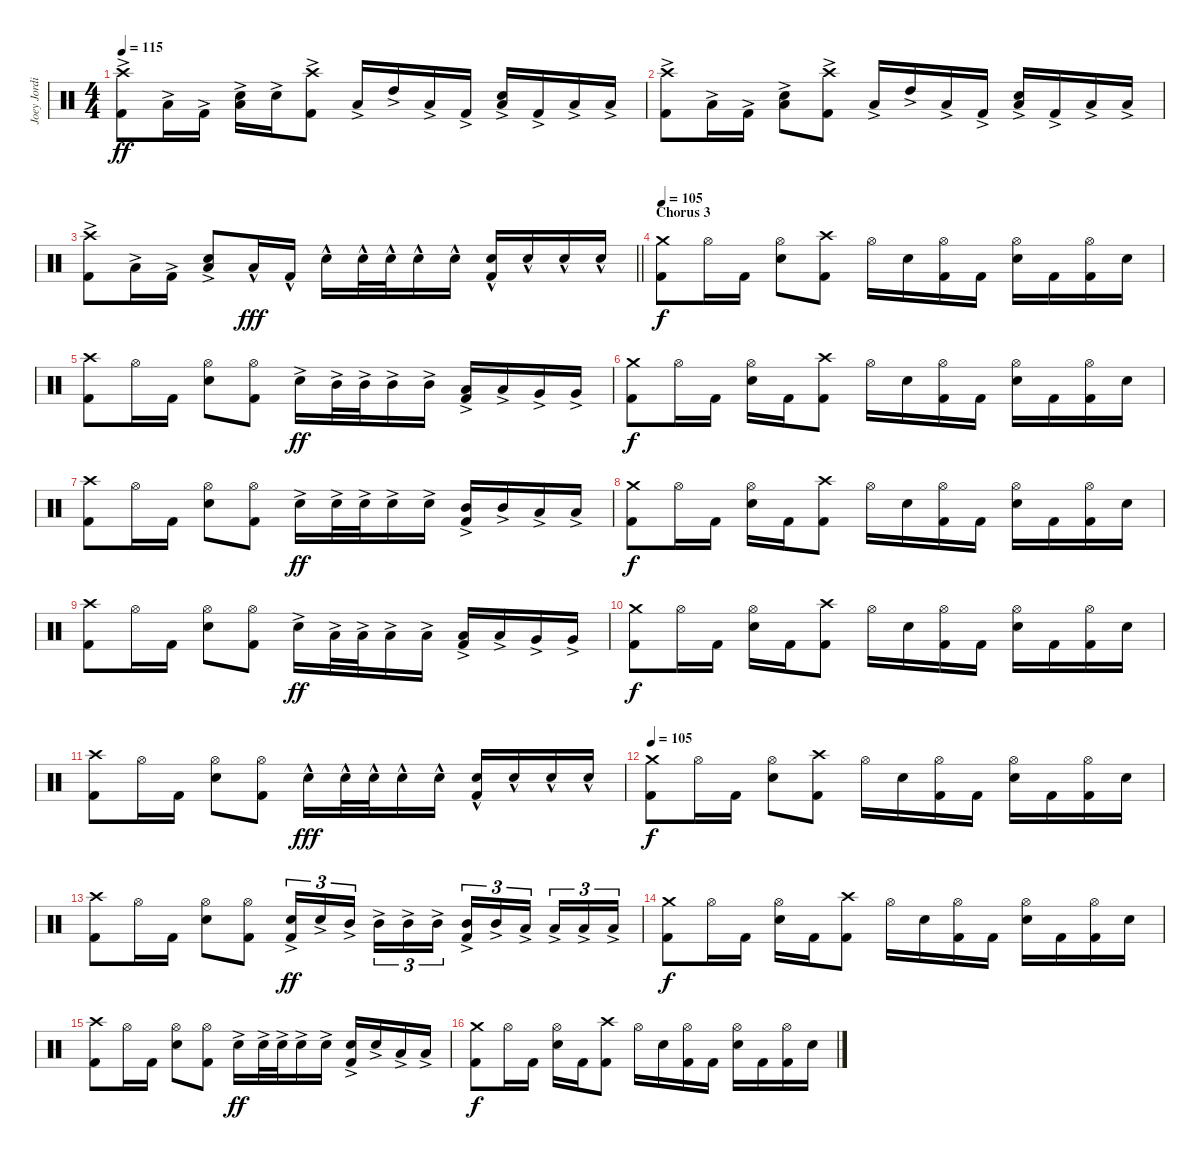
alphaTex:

\track ("Joey Jordinson (Drums)" "Joey Jordi") {instrument percussion}
\staff {score}
\articulation defaults
\ts (4 4)
\tempo 115
\clef neutral
\ks c
("Crash high (hit)" "Kick (hit) 2"{ac}).8{dy ff} "Low Tom (hit)"{ac}.16 "Kick (hit) 2"{ac}.16 ("Low Tom (hit)"{ac} "Electric Snare (hit)"{ac}).16 "Electric Snare (hit)"{ac}.16 ("Crash high (hit)" "Kick (hit) 2"{ac}).8 "Low Tom (hit)"{ac}.16 "High Tom (hit)"{ac}.16 "Low Tom (hit)"{ac}.16 "Kick (hit) 2"{ac}.16 ("Low Tom (hit)"{ac} "Electric Snare (hit)"{ac}).16 "Kick (hit) 2"{ac}.16 "Low Tom (hit)"{ac}.16 "Low Tom (hit)"{ac}.16 |
("Crash high (hit)" "Kick (hit) 2"{ac}).8 "Low Tom (hit)"{ac}.16 "Kick (hit) 2"{ac}.16 ("Low Tom (hit)"{ac} "Electric Snare (hit)"{ac}).8 ("Crash high (hit)" "Kick (hit) 2"{ac}).8 "Low Tom (hit)"{ac}.16 "High Tom (hit)"{ac}.16 "Low Tom (hit)"{ac}.16 "Kick (hit) 2"{ac}.16 ("Low Tom (hit)"{ac} "Electric Snare (hit)"{ac}).16 "Kick (hit) 2"{ac}.16 "Low Tom (hit)"{ac}.16 "Low Tom (hit)"{ac}.16 |
\barLineRight lightlight
("Crash high (hit)" "Kick (hit) 2"{ac}).8 "Low Tom (hit)"{ac}.16 "Kick (hit) 2"{ac}.16 ("Low Tom (hit)"{ac} "Electric Snare (hit)"{ac}).8 "Low Tom (hit)"{hac}.16{dy fff} "Kick (hit) 2"{hac}.16 "Electric Snare (hit)"{hac}.16 "Electric Snare (hit)"{hac}.32 "Electric Snare (hit)"{hac}.32 "Electric Snare (hit)"{hac}.16 "Electric Snare (hit)"{hac}.16 ("Electric Snare (hit)"{hac} "Kick (hit) 2"{hac}).16 "Electric Snare (hit)"{hac}.16 "Electric Snare (hit)"{hac}.16 "Electric Snare (hit)"{hac}.16 |
\section ("" "Chorus 3")
\tempo 105
("Crash medium (hit)" "Kick (hit) 2").8{dy f} "Hi-Hat (open)".16 "Kick (hit) 2".16 ("Hi-Hat (open)" "Electric Snare (hit)").8 ("Crash high (hit)" "Kick (hit) 2").8 "Hi-Hat (open)".16 "Electric Snare (hit)".16 ("Hi-Hat (open)" "Kick (hit) 2").16 "Kick (hit) 2".16 ("Hi-Hat (open)" "Electric Snare (hit)").16 "Kick (hit) 2".16 ("Hi-Hat (open)" "Kick (hit) 2").16 "Electric Snare (hit)".16 |
("Crash high (hit)" "Kick (hit) 2").8 "Hi-Hat (open)".16 "Kick (hit) 2".16 ("Hi-Hat (open)" "Electric Snare (hit)").8 ("Hi-Hat (open)" "Kick (hit) 2").8 "Electric Snare (hit)"{ac}.16{dy ff} "Mid Tom (hit)"{ac}.32 "Mid Tom (hit)"{ac}.32 "Mid Tom (hit)"{ac}.16 "Mid Tom (hit)"{ac}.16 ("Low Tom (hit)"{ac} "Kick (hit) 2").16 "Low Tom (hit)"{ac}.16 "Very Low Tom (hit)"{ac}.16 "Very Low Tom (hit)"{ac}.16 |
("Crash medium (hit)" "Kick (hit) 2").8{dy f} "Hi-Hat (open)".16 "Kick (hit) 2".16 ("Hi-Hat (open)" "Electric Snare (hit)").16 "Kick (hit) 2".16 ("Crash high (hit)" "Kick (hit) 2").8 "Hi-Hat (open)".16 "Electric Snare (hit)".16 ("Hi-Hat (open)" "Kick (hit) 2").16 "Kick (hit) 2".16 ("Hi-Hat (open)" "Electric Snare (hit)").16 "Kick (hit) 2".16 ("Hi-Hat (open)" "Kick (hit) 2").16 "Electric Snare (hit)".16 |
("Crash high (hit)" "Kick (hit) 2").8 "Hi-Hat (open)".16 "Kick (hit) 2".16 ("Hi-Hat (open)" "Electric Snare (hit)").8 ("Hi-Hat (open)" "Kick (hit) 2").8 "Electric Snare (hit)"{ac}.16{dy ff} "Electric Snare (hit)"{ac}.32 "Electric Snare (hit)"{ac}.32 "Electric Snare (hit)"{ac}.16 "Electric Snare (hit)"{ac}.16 ("Mid Tom (hit)"{ac} "Kick (hit) 2").16 "Mid Tom (hit)"{ac}.16 "Low Tom (hit)"{ac}.16 "Low Tom (hit)"{ac}.16 |
("Crash medium (hit)" "Kick (hit) 2").8{dy f} "Hi-Hat (open)".16 "Kick (hit) 2".16 ("Hi-Hat (open)" "Electric Snare (hit)").16 "Kick (hit) 2".16 ("Crash high (hit)" "Kick (hit) 2").8 "Hi-Hat (open)".16 "Electric Snare (hit)".16 ("Hi-Hat (open)" "Kick (hit) 2").16 "Kick (hit) 2".16 ("Hi-Hat (open)" "Electric Snare (hit)").16 "Kick (hit) 2".16 ("Hi-Hat (open)" "Kick (hit) 2").16 "Electric Snare (hit)".16 |
("Crash high (hit)" "Kick (hit) 2").8 "Hi-Hat (open)".16 "Kick (hit) 2".16 ("Hi-Hat (open)" "Electric Snare (hit)").8 ("Hi-Hat (open)" "Kick (hit) 2").8 "Electric Snare (hit)"{ac}.16{dy ff} "Low Tom (hit)"{ac}.32 "Low Tom (hit)"{ac}.32 "Low Tom (hit)"{ac}.16 "Low Tom (hit)"{ac}.16 ("Low Tom (hit)"{ac} "Kick (hit) 2").16 "Low Tom (hit)"{ac}.16 "Very Low Tom (hit)"{ac}.16 "Very Low Tom (hit)"{ac}.16 |
("Crash medium (hit)" "Kick (hit) 2").8{dy f} "Hi-Hat (open)".16 "Kick (hit) 2".16 ("Hi-Hat (open)" "Electric Snare (hit)").16 "Kick (hit) 2".16 ("Crash high (hit)" "Kick (hit) 2").8 "Hi-Hat (open)".16 "Electric Snare (hit)".16 ("Hi-Hat (open)" "Kick (hit) 2").16 "Kick (hit) 2".16 ("Hi-Hat (open)" "Electric Snare (hit)").16 "Kick (hit) 2".16 ("Hi-Hat (open)" "Kick (hit) 2").16 "Electric Snare (hit)".16 |
("Crash high (hit)" "Kick (hit) 2").8 "Hi-Hat (open)".16 "Kick (hit) 2".16 ("Hi-Hat (open)" "Electric Snare (hit)").8 ("Hi-Hat (open)" "Kick (hit) 2").8 "Electric Snare (hit)"{hac}.16{dy fff} "Electric Snare (hit)"{hac}.32 "Electric Snare (hit)"{hac}.32 "Electric Snare (hit)"{hac}.16 "Electric Snare (hit)"{hac}.16 ("Electric Snare (hit)"{hac} "Kick (hit) 2").16 "Electric Snare (hit)"{hac}.16 "Electric Snare (hit)"{hac}.16 "Electric Snare (hit)"{hac}.16 |
\tempo 105
("Crash medium (hit)" "Kick (hit) 2").8{dy f} "Hi-Hat (open)".16 "Kick (hit) 2".16 ("Hi-Hat (open)" "Electric Snare (hit)").8 ("Crash high (hit)" "Kick (hit) 2").8 "Hi-Hat (open)".16 "Electric Snare (hit)".16 ("Hi-Hat (open)" "Kick (hit) 2").16 "Kick (hit) 2".16 ("Hi-Hat (open)" "Electric Snare (hit)").16 "Kick (hit) 2".16 ("Hi-Hat (open)" "Kick (hit) 2").16 "Electric Snare (hit)".16 |
("Crash high (hit)" "Kick (hit) 2").8 "Hi-Hat (open)".16 "Kick (hit) 2".16 ("Hi-Hat (open)" "Electric Snare (hit)").8 ("Hi-Hat (open)" "Kick (hit) 2").8 ("Electric Snare (hit)"{ac} "Kick (hit) 2").16{tu (3 2) dy ff} "Electric Snare (hit)"{ac}.16{tu (3 2)} "Mid Tom (hit)"{ac}.16{tu (3 2) beam splitsecondary} "Mid Tom (hit)"{ac}.16{tu (3 2)} "Mid Tom (hit)"{ac}.16{tu (3 2)} "Mid Tom (hit)"{ac}.16{tu (3 2)} ("Mid Tom (hit)"{ac} "Kick (hit) 2").16{tu (3 2)} "Mid Tom (hit)"{ac}.16{tu (3 2)} "Low Tom (hit)"{ac}.16{tu (3 2) beam splitsecondary} "Low Tom (hit)"{ac}.16{tu (3 2)} "Low Tom (hit)"{ac}.16{tu (3 2)} "Low Tom (hit)"{ac}.16{tu (3 2)} |
("Crash medium (hit)" "Kick (hit) 2").8{dy f} "Hi-Hat (open)".16 "Kick (hit) 2".16 ("Hi-Hat (open)" "Electric Snare (hit)").16 "Kick (hit) 2".16 ("Crash high (hit)" "Kick (hit) 2").8 "Hi-Hat (open)".16 "Electric Snare (hit)".16 ("Hi-Hat (open)" "Kick (hit) 2").16 "Kick (hit) 2".16 ("Hi-Hat (open)" "Electric Snare (hit)").16 "Kick (hit) 2".16 ("Hi-Hat (open)" "Kick (hit) 2").16 "Electric Snare (hit)".16 |
("Crash high (hit)" "Kick (hit) 2").8 "Hi-Hat (open)".16 "Kick (hit) 2".16 ("Hi-Hat (open)" "Electric Snare (hit)").8 ("Hi-Hat (open)" "Kick (hit) 2").8 "Electric Snare (hit)"{ac}.16{dy ff} "Electric Snare (hit)"{ac}.32 "Electric Snare (hit)"{ac}.32 "Electric Snare (hit)"{ac}.16 "Electric Snare (hit)"{ac}.16 ("Electric Snare (hit)"{ac} "Kick (hit) 2").16 "Electric Snare (hit)"{ac}.16 "Low Tom (hit)"{ac}.16 "Low Tom (hit)"{ac}.16 |
("Crash medium (hit)" "Kick (hit) 2").8{dy f} "Hi-Hat (open)".16 "Kick (hit) 2".16 ("Hi-Hat (open)" "Electric Snare (hit)").16 "Kick (hit) 2".16 ("Crash high (hit)" "Kick (hit) 2").8 "Hi-Hat (open)".16 "Electric Snare (hit)".16 ("Hi-Hat (open)" "Kick (hit) 2").16 "Kick (hit) 2".16 ("Hi-Hat (open)" "Electric Snare (hit)").16 "Kick (hit) 2".16 ("Hi-Hat (open)" "Kick (hit) 2").16 "Electric Snare (hit)".16
